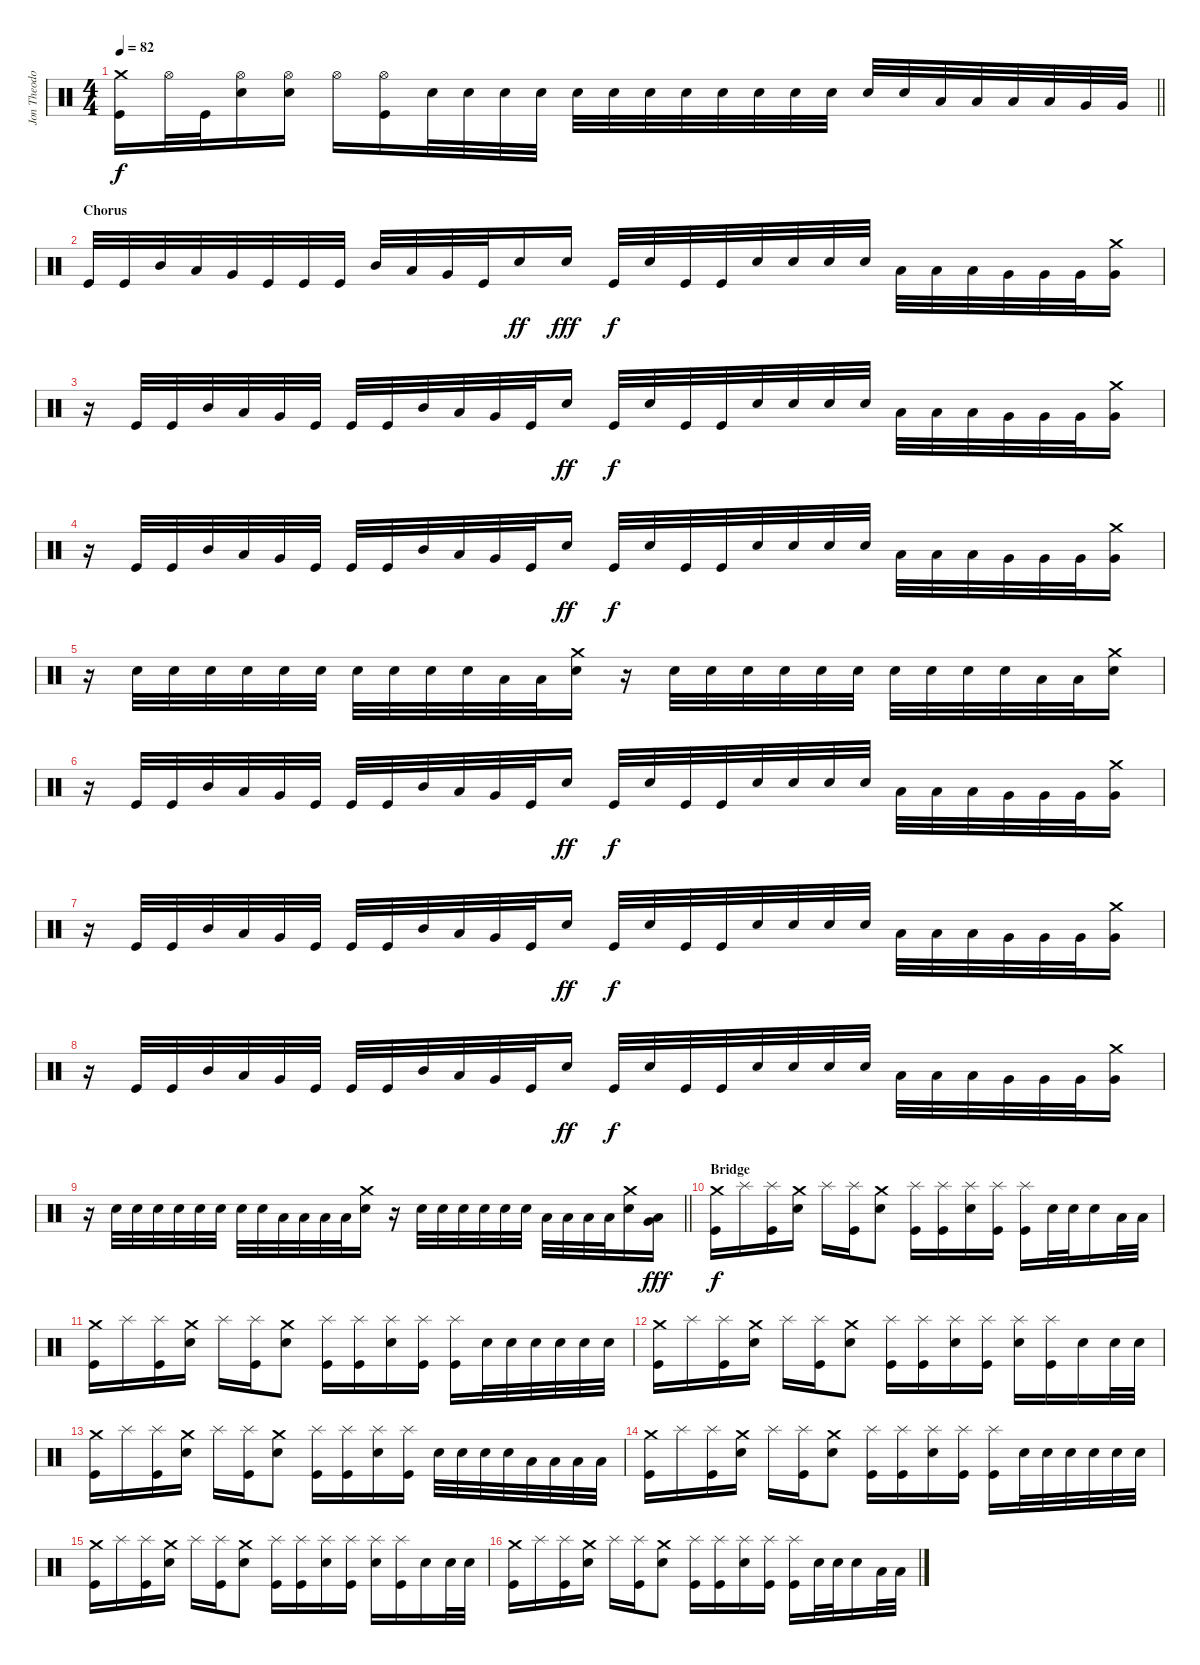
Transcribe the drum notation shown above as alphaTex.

\track ("Jon Theodore - Drums" "Jon Theodo") {instrument percussion}
\staff {score}
\articulation defaults
\ts (4 4)
\tempo 82
\clef neutral
\barLineRight lightlight
\ks c
("Crash medium (hit)" "Kick (hit)").16{dy f} "Hi-Hat (open)".32 "Kick (hit)".32 ("Hi-Hat (open)" "Snare (hit) 2").16 ("Hi-Hat (open)" "Snare (hit) 2").16 "Hi-Hat (open)".16 ("Hi-Hat (open)" "Kick (hit)").16 "Snare (hit) 2".32 "Snare (hit) 2".32 "Snare (hit) 2".32 "Snare (hit) 2".32 "Snare (hit) 2".32 "Snare (hit) 2".32 "Snare (hit) 2".32 "Snare (hit) 2".32 "Snare (hit) 2".32 "Snare (hit) 2".32 "Snare (hit) 2".32 "Snare (hit) 2".32 "Snare (hit) 2".32 "Snare (hit) 2".32 "Low Tom (hit)".32 "Low Tom (hit)".32 "Low Tom (hit)".32 "Low Tom (hit)".32 "Very Low Tom (hit)".32 "Very Low Tom (hit)".32 |
\section ("" "Chorus")
"Kick (hit)".32 "Kick (hit)".32 "Mid Tom (hit)".32 "Low Tom (hit)".32 "Very Low Tom (hit)".32 "Kick (hit)".32 "Kick (hit)".32 "Kick (hit)".32 "Mid Tom (hit)".32 "Low Tom (hit)".32 "Very Low Tom (hit)".32 "Kick (hit)".32 "Snare (hit) 2".16{dy ff} "Snare (hit) 2".16{dy fff} "Kick (hit)".32{dy f} "Snare (hit) 2".32 "Kick (hit)".32 "Kick (hit)".32 "Snare (hit) 2".32 "Snare (hit) 2".32 "Snare (hit) 2".32 "Snare (hit) 2".32 "Low Tom (hit)".32 "Low Tom (hit)".32 "Low Tom (hit)".32 "Very Low Tom (hit)".32 "Very Low Tom (hit)".32 "Very Low Tom (hit)".32 ("Crash medium (hit)" "Very Low Tom (hit)").16 |
r.16 "Kick (hit)".32 "Kick (hit)".32 "Mid Tom (hit)".32 "Low Tom (hit)".32 "Very Low Tom (hit)".32 "Kick (hit)".32 "Kick (hit)".32 "Kick (hit)".32 "Mid Tom (hit)".32 "Low Tom (hit)".32 "Very Low Tom (hit)".32 "Kick (hit)".32 "Snare (hit) 2".16{dy ff} "Kick (hit)".32{dy f} "Snare (hit) 2".32 "Kick (hit)".32 "Kick (hit)".32 "Snare (hit) 2".32 "Snare (hit) 2".32 "Snare (hit) 2".32 "Snare (hit) 2".32 "Low Tom (hit)".32 "Low Tom (hit)".32 "Low Tom (hit)".32 "Very Low Tom (hit)".32 "Very Low Tom (hit)".32 "Very Low Tom (hit)".32 ("Crash medium (hit)" "Very Low Tom (hit)").16 |
r.16 "Kick (hit)".32 "Kick (hit)".32 "Mid Tom (hit)".32 "Low Tom (hit)".32 "Very Low Tom (hit)".32 "Kick (hit)".32 "Kick (hit)".32 "Kick (hit)".32 "Mid Tom (hit)".32 "Low Tom (hit)".32 "Very Low Tom (hit)".32 "Kick (hit)".32 "Snare (hit) 2".16{dy ff} "Kick (hit)".32{dy f} "Snare (hit) 2".32 "Kick (hit)".32 "Kick (hit)".32 "Snare (hit) 2".32 "Snare (hit) 2".32 "Snare (hit) 2".32 "Snare (hit) 2".32 "Low Tom (hit)".32 "Low Tom (hit)".32 "Low Tom (hit)".32 "Very Low Tom (hit)".32 "Very Low Tom (hit)".32 "Very Low Tom (hit)".32 ("Crash medium (hit)" "Very Low Tom (hit)").16 |
r.16 "Snare (hit) 2".32 "Snare (hit) 2".32 "Snare (hit) 2".32 "Snare (hit) 2".32 "Snare (hit) 2".32 "Snare (hit) 2".32 "Snare (hit) 2".32 "Snare (hit) 2".32 "Snare (hit) 2".32 "Snare (hit) 2".32 "Low Tom (hit)".32 "Low Tom (hit)".32 ("Crash medium (hit)" "Snare (hit) 2").16 r.16 "Snare (hit) 2".32 "Snare (hit) 2".32 "Snare (hit) 2".32 "Snare (hit) 2".32 "Snare (hit) 2".32 "Snare (hit) 2".32 "Snare (hit) 2".32 "Snare (hit) 2".32 "Snare (hit) 2".32 "Snare (hit) 2".32 "Low Tom (hit)".32 "Low Tom (hit)".32 ("Crash medium (hit)" "Snare (hit) 2").16 |
r.16 "Kick (hit)".32 "Kick (hit)".32 "Mid Tom (hit)".32 "Low Tom (hit)".32 "Very Low Tom (hit)".32 "Kick (hit)".32 "Kick (hit)".32 "Kick (hit)".32 "Mid Tom (hit)".32 "Low Tom (hit)".32 "Very Low Tom (hit)".32 "Kick (hit)".32 "Snare (hit) 2".16{dy ff} "Kick (hit)".32{dy f} "Snare (hit) 2".32 "Kick (hit)".32 "Kick (hit)".32 "Snare (hit) 2".32 "Snare (hit) 2".32 "Snare (hit) 2".32 "Snare (hit) 2".32 "Low Tom (hit)".32 "Low Tom (hit)".32 "Low Tom (hit)".32 "Very Low Tom (hit)".32 "Very Low Tom (hit)".32 "Very Low Tom (hit)".32 ("Crash medium (hit)" "Very Low Tom (hit)").16 |
r.16 "Kick (hit)".32 "Kick (hit)".32 "Mid Tom (hit)".32 "Low Tom (hit)".32 "Very Low Tom (hit)".32 "Kick (hit)".32 "Kick (hit)".32 "Kick (hit)".32 "Mid Tom (hit)".32 "Low Tom (hit)".32 "Very Low Tom (hit)".32 "Kick (hit)".32 "Snare (hit) 2".16{dy ff} "Kick (hit)".32{dy f} "Snare (hit) 2".32 "Kick (hit)".32 "Kick (hit)".32 "Snare (hit) 2".32 "Snare (hit) 2".32 "Snare (hit) 2".32 "Snare (hit) 2".32 "Low Tom (hit)".32 "Low Tom (hit)".32 "Low Tom (hit)".32 "Very Low Tom (hit)".32 "Very Low Tom (hit)".32 "Very Low Tom (hit)".32 ("Crash medium (hit)" "Very Low Tom (hit)").16 |
r.16 "Kick (hit)".32 "Kick (hit)".32 "Mid Tom (hit)".32 "Low Tom (hit)".32 "Very Low Tom (hit)".32 "Kick (hit)".32 "Kick (hit)".32 "Kick (hit)".32 "Mid Tom (hit)".32 "Low Tom (hit)".32 "Very Low Tom (hit)".32 "Kick (hit)".32 "Snare (hit) 2".16{dy ff} "Kick (hit)".32{dy f} "Snare (hit) 2".32 "Kick (hit)".32 "Kick (hit)".32 "Snare (hit) 2".32 "Snare (hit) 2".32 "Snare (hit) 2".32 "Snare (hit) 2".32 "Low Tom (hit)".32 "Low Tom (hit)".32 "Low Tom (hit)".32 "Very Low Tom (hit)".32 "Very Low Tom (hit)".32 "Very Low Tom (hit)".32 ("Crash medium (hit)" "Very Low Tom (hit)").16 |
\barLineRight lightlight
r.16 "Snare (hit) 2".32 "Snare (hit) 2".32 "Snare (hit) 2".32 "Snare (hit) 2".32 "Snare (hit) 2".32 "Snare (hit) 2".32 "Snare (hit) 2".32 "Snare (hit) 2".32 "Low Tom (hit)".32 "Low Tom (hit)".32 "Low Tom (hit)".32 "Low Tom (hit)".32 ("Crash medium (hit)" "Snare (hit) 2").16 r.16 "Snare (hit) 2".32 "Snare (hit) 2".32 "Snare (hit) 2".32 "Snare (hit) 2".32 "Snare (hit) 2".32 "Snare (hit) 2".32 "Low Tom (hit)".32 "Low Tom (hit)".32 "Low Tom (hit)".32 "Low Tom (hit)".32 ("Crash medium (hit)" "Snare (hit) 2").16 ("Low Tom (hit)" "Very Low Tom (hit)").16{dy fff} |
\section ("" "Bridge")
("Crash medium (hit)" "Kick (hit)").16{dy f} "Splash (hit)".16 ("Splash (hit)" "Kick (hit)").16 ("Crash medium (hit)" "Snare (hit) 2").16 "Splash (hit)".16 ("Splash (hit)" "Kick (hit)").16 ("Crash medium (hit)" "Snare (hit) 2").8 ("Splash (hit)" "Kick (hit)").16 ("Splash (hit)" "Kick (hit)").16 ("Splash (hit)" "Snare (hit) 2").16 ("Splash (hit)" "Kick (hit)").16 ("Splash (hit)" "Kick (hit)").16 "Snare (hit) 2".32 "Snare (hit) 2".32 "Snare (hit) 2".16 "Low Tom (hit)".32 "Low Tom (hit)".32 |
("Crash medium (hit)" "Kick (hit)").16 "Splash (hit)".16 ("Splash (hit)" "Kick (hit)").16 ("Crash medium (hit)" "Snare (hit) 2").16 "Splash (hit)".16 ("Splash (hit)" "Kick (hit)").16 ("Crash medium (hit)" "Snare (hit) 2").8 ("Splash (hit)" "Kick (hit)").16 ("Splash (hit)" "Kick (hit)").16 ("Splash (hit)" "Snare (hit) 2").16 ("Splash (hit)" "Kick (hit)").16 ("Splash (hit)" "Kick (hit)").16 "Snare (hit) 2".32 "Snare (hit) 2".32 "Snare (hit) 2".32 "Snare (hit) 2".32 "Snare (hit) 2".32 "Snare (hit) 2".32 |
("Crash medium (hit)" "Kick (hit)").16 "Splash (hit)".16 ("Splash (hit)" "Kick (hit)").16 ("Crash medium (hit)" "Snare (hit) 2").16 "Splash (hit)".16 ("Splash (hit)" "Kick (hit)").16 ("Crash medium (hit)" "Snare (hit) 2").8 ("Splash (hit)" "Kick (hit)").16 ("Splash (hit)" "Kick (hit)").16 ("Splash (hit)" "Snare (hit) 2").16 ("Splash (hit)" "Kick (hit)").16 ("Splash (hit)" "Snare (hit) 2").16 ("Splash (hit)" "Kick (hit)").16 "Snare (hit) 2".16 "Snare (hit) 2".32 "Snare (hit) 2".32 |
("Crash medium (hit)" "Kick (hit)").16 "Splash (hit)".16 ("Splash (hit)" "Kick (hit)").16 ("Crash medium (hit)" "Snare (hit) 2").16 "Splash (hit)".16 ("Splash (hit)" "Kick (hit)").16 ("Crash medium (hit)" "Snare (hit) 2").8 ("Splash (hit)" "Kick (hit)").16 ("Splash (hit)" "Kick (hit)").16 ("Splash (hit)" "Snare (hit) 2").16 ("Splash (hit)" "Kick (hit)").16 "Snare (hit) 2".32 "Snare (hit) 2".32 "Snare (hit) 2".32 "Snare (hit) 2".32 "Low Tom (hit)".32 "Low Tom (hit)".32 "Low Tom (hit)".32 "Low Tom (hit)".32 |
("Crash medium (hit)" "Kick (hit)").16 "Splash (hit)".16 ("Splash (hit)" "Kick (hit)").16 ("Crash medium (hit)" "Snare (hit) 2").16 "Splash (hit)".16 ("Splash (hit)" "Kick (hit)").16 ("Crash medium (hit)" "Snare (hit) 2").8 ("Splash (hit)" "Kick (hit)").16 ("Splash (hit)" "Kick (hit)").16 ("Splash (hit)" "Snare (hit) 2").16 ("Splash (hit)" "Kick (hit)").16 ("Splash (hit)" "Kick (hit)").16 "Snare (hit) 2".32 "Snare (hit) 2".32 "Snare (hit) 2".32 "Snare (hit) 2".32 "Snare (hit) 2".32 "Snare (hit) 2".32 |
("Crash medium (hit)" "Kick (hit)").16 "Splash (hit)".16 ("Splash (hit)" "Kick (hit)").16 ("Crash medium (hit)" "Snare (hit) 2").16 "Splash (hit)".16 ("Splash (hit)" "Kick (hit)").16 ("Crash medium (hit)" "Snare (hit) 2").8 ("Splash (hit)" "Kick (hit)").16 ("Splash (hit)" "Kick (hit)").16 ("Splash (hit)" "Snare (hit) 2").16 ("Splash (hit)" "Kick (hit)").16 ("Splash (hit)" "Snare (hit) 2").16 ("Splash (hit)" "Kick (hit)").16 "Snare (hit) 2".16 "Snare (hit) 2".32 "Snare (hit) 2".32 |
("Crash medium (hit)" "Kick (hit)").16 "Splash (hit)".16 ("Splash (hit)" "Kick (hit)").16 ("Crash medium (hit)" "Snare (hit) 2").16 "Splash (hit)".16 ("Splash (hit)" "Kick (hit)").16 ("Crash medium (hit)" "Snare (hit) 2").8 ("Splash (hit)" "Kick (hit)").16 ("Splash (hit)" "Kick (hit)").16 ("Splash (hit)" "Snare (hit) 2").16 ("Splash (hit)" "Kick (hit)").16 ("Splash (hit)" "Kick (hit)").16 "Snare (hit) 2".32 "Snare (hit) 2".32 "Snare (hit) 2".16 "Low Tom (hit)".32 "Low Tom (hit)".32
